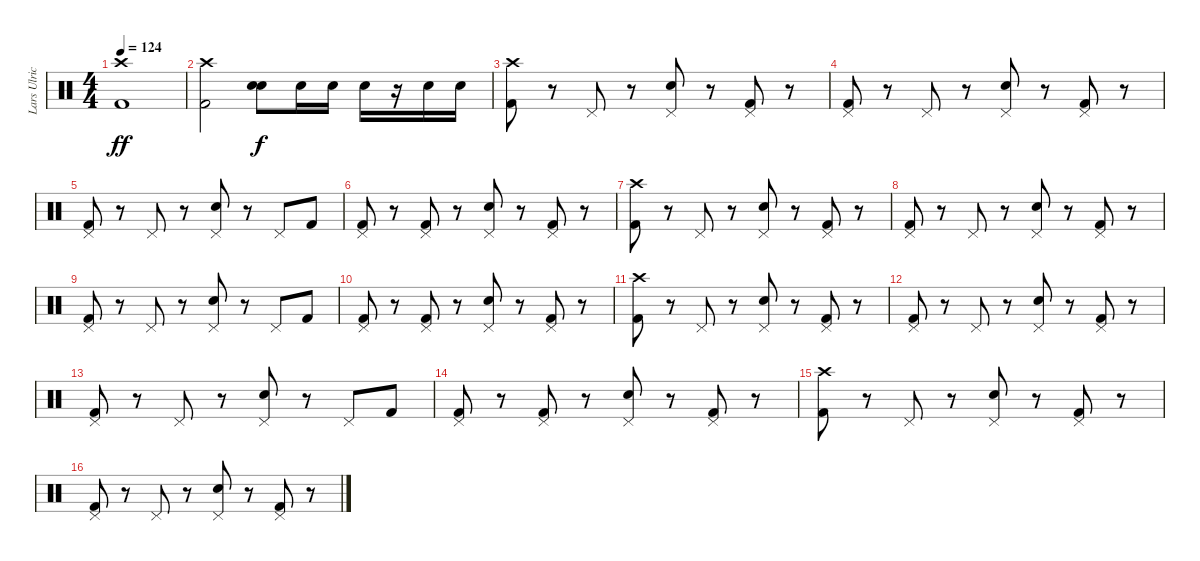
\track ("Lars Ulrich" "Lars Ulric") {instrument percussion}
\staff {score}
\articulation defaults
\ts (4 4)
\tempo 124
\clef neutral
\ks c
("Crash high (hit)" "Kick (hit) 2").1{dy ff} |
("Crash high (hit)" "Kick (hit) 2").2 ("Electric Snare (hit)" "Electric Snare (hit)").8{bd 240 dy f} "Electric Snare (hit)".16 "Electric Snare (hit)".16 "Electric Snare (hit)".16 r.16 "Electric Snare (hit)".16 "Electric Snare (hit)".16 |
("Crash high (hit)" "Kick (hit) 2").8 r.8 "Pedal Hi-Hat (hit)".8 r.8 ("Pedal Hi-Hat (hit)" "Electric Snare (hit)").8 r.8 ("Pedal Hi-Hat (hit)" "Kick (hit) 2").8 r.8 |
("Pedal Hi-Hat (hit)" "Kick (hit) 2").8 r.8 "Pedal Hi-Hat (hit)".8 r.8 ("Pedal Hi-Hat (hit)" "Electric Snare (hit)").8 r.8 ("Pedal Hi-Hat (hit)" "Kick (hit) 2").8 r.8 |
("Pedal Hi-Hat (hit)" "Kick (hit) 2").8 r.8 "Pedal Hi-Hat (hit)".8 r.8 ("Pedal Hi-Hat (hit)" "Electric Snare (hit)").8 r.8 "Pedal Hi-Hat (hit)".8 "Kick (hit) 2".8 |
("Pedal Hi-Hat (hit)" "Kick (hit) 2").8 r.8 ("Pedal Hi-Hat (hit)" "Kick (hit) 2").8 r.8 ("Pedal Hi-Hat (hit)" "Electric Snare (hit)").8 r.8 ("Pedal Hi-Hat (hit)" "Kick (hit) 2").8 r.8 |
("Crash high (hit)" "Kick (hit) 2").8 r.8 "Pedal Hi-Hat (hit)".8 r.8 ("Pedal Hi-Hat (hit)" "Electric Snare (hit)").8 r.8 ("Pedal Hi-Hat (hit)" "Kick (hit) 2").8 r.8 |
("Pedal Hi-Hat (hit)" "Kick (hit) 2").8 r.8 "Pedal Hi-Hat (hit)".8 r.8 ("Pedal Hi-Hat (hit)" "Electric Snare (hit)").8 r.8 ("Pedal Hi-Hat (hit)" "Kick (hit) 2").8 r.8 |
("Pedal Hi-Hat (hit)" "Kick (hit) 2").8 r.8 "Pedal Hi-Hat (hit)".8 r.8 ("Pedal Hi-Hat (hit)" "Electric Snare (hit)").8 r.8 "Pedal Hi-Hat (hit)".8 "Kick (hit) 2".8 |
("Pedal Hi-Hat (hit)" "Kick (hit) 2").8 r.8 ("Pedal Hi-Hat (hit)" "Kick (hit) 2").8 r.8 ("Pedal Hi-Hat (hit)" "Electric Snare (hit)").8 r.8 ("Pedal Hi-Hat (hit)" "Kick (hit) 2").8 r.8 |
("Crash high (hit)" "Kick (hit) 2").8 r.8 "Pedal Hi-Hat (hit)".8 r.8 ("Pedal Hi-Hat (hit)" "Electric Snare (hit)").8 r.8 ("Pedal Hi-Hat (hit)" "Kick (hit) 2").8 r.8 |
("Pedal Hi-Hat (hit)" "Kick (hit) 2").8 r.8 "Pedal Hi-Hat (hit)".8 r.8 ("Pedal Hi-Hat (hit)" "Electric Snare (hit)").8 r.8 ("Pedal Hi-Hat (hit)" "Kick (hit) 2").8 r.8 |
("Pedal Hi-Hat (hit)" "Kick (hit) 2").8 r.8 "Pedal Hi-Hat (hit)".8 r.8 ("Pedal Hi-Hat (hit)" "Electric Snare (hit)").8 r.8 "Pedal Hi-Hat (hit)".8 "Kick (hit) 2".8 |
("Pedal Hi-Hat (hit)" "Kick (hit) 2").8 r.8 ("Pedal Hi-Hat (hit)" "Kick (hit) 2").8 r.8 ("Pedal Hi-Hat (hit)" "Electric Snare (hit)").8 r.8 ("Pedal Hi-Hat (hit)" "Kick (hit) 2").8 r.8 |
("Crash high (hit)" "Kick (hit) 2").8 r.8 "Pedal Hi-Hat (hit)".8 r.8 ("Pedal Hi-Hat (hit)" "Electric Snare (hit)").8 r.8 ("Pedal Hi-Hat (hit)" "Kick (hit) 2").8 r.8 |
("Pedal Hi-Hat (hit)" "Kick (hit) 2").8 r.8 "Pedal Hi-Hat (hit)".8 r.8 ("Pedal Hi-Hat (hit)" "Electric Snare (hit)").8 r.8 ("Pedal Hi-Hat (hit)" "Kick (hit) 2").8 r.8
